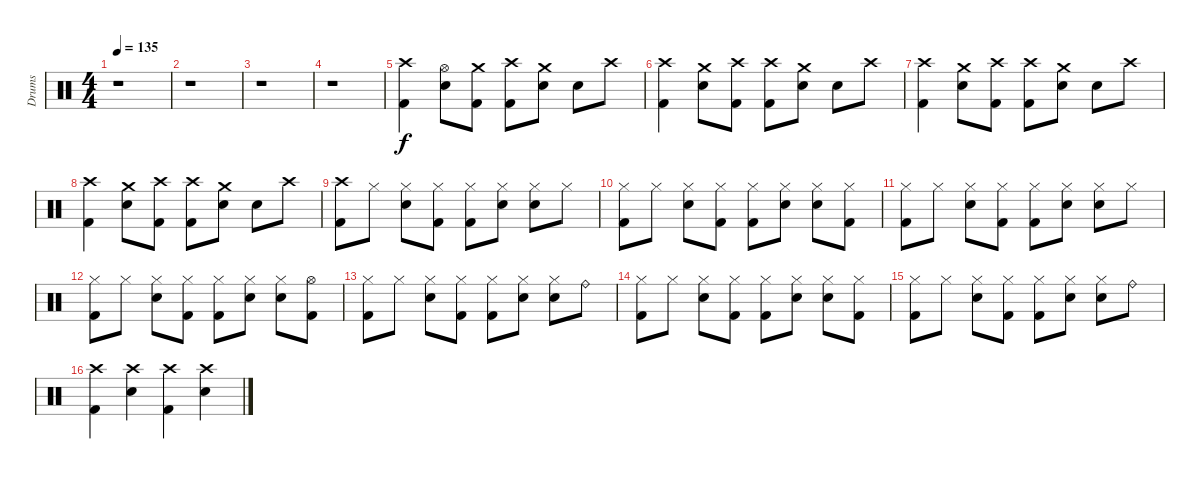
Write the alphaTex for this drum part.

\track ("Drums" "Drums") {instrument percussion}
\staff {score}
\articulation defaults
\ts (4 4)
\tempo 135
\clef neutral
\ks c
r.1{dy f} |
r.1 |
r.1 |
r.1 |
("Crash high (hit)" "Kick (hit) 2").4 ("Hi-Hat (open)" "Snare (hit) 2").8 ("Crash medium (hit)" "Kick (hit) 2").8 ("Crash high (hit)" "Kick (hit) 2").8 ("Crash medium (hit)" "Snare (hit) 2").8 "Snare (hit) 2".8 "Crash high (hit)".8 |
("Crash high (hit)" "Kick (hit) 2").4 ("Crash medium (hit)" "Snare (hit) 2").8 ("Crash high (hit)" "Kick (hit) 2").8 ("Crash high (hit)" "Kick (hit) 2").8 ("Crash medium (hit)" "Snare (hit) 2").8 "Snare (hit) 2".8 "Crash high (hit)".8 |
("Crash high (hit)" "Kick (hit) 2").4 ("Crash medium (hit)" "Snare (hit) 2").8 ("Crash high (hit)" "Kick (hit) 2").8 ("Crash high (hit)" "Kick (hit) 2").8 ("Crash medium (hit)" "Snare (hit) 2").8 "Snare (hit) 2".8 "Crash high (hit)".8 |
("Crash high (hit)" "Kick (hit) 2").4 ("Crash medium (hit)" "Snare (hit) 2").8 ("Crash high (hit)" "Kick (hit) 2").8 ("Crash high (hit)" "Kick (hit) 2").8 ("Crash medium (hit)" "Snare (hit) 2").8 "Snare (hit) 2".8 "Crash high (hit)".8 |
("Crash high (hit)" "Kick (hit) 2").8 "Hi-Hat (closed)".8 ("Hi-Hat (closed)" "Snare (hit) 2").8 ("Hi-Hat (closed)" "Kick (hit) 2").8 ("Hi-Hat (closed)" "Kick (hit) 2").8 ("Hi-Hat (closed)" "Snare (hit) 2").8 ("Hi-Hat (closed)" "Snare (hit) 2").8 "Hi-Hat (closed)".8 |
("Hi-Hat (closed)" "Kick (hit) 2").8 "Hi-Hat (closed)".8 ("Hi-Hat (closed)" "Snare (hit) 2").8 ("Hi-Hat (closed)" "Kick (hit) 2").8 ("Hi-Hat (closed)" "Kick (hit) 2").8 ("Hi-Hat (closed)" "Snare (hit) 2").8 ("Hi-Hat (closed)" "Snare (hit) 2").8 ("Hi-Hat (closed)" "Kick (hit) 2").8 |
("Hi-Hat (closed)" "Kick (hit) 2").8 "Hi-Hat (closed)".8 ("Hi-Hat (closed)" "Snare (hit) 2").8 ("Hi-Hat (closed)" "Kick (hit) 2").8 ("Hi-Hat (closed)" "Kick (hit) 2").8 ("Hi-Hat (closed)" "Snare (hit) 2").8 ("Hi-Hat (closed)" "Snare (hit) 2").8 "Hi-Hat (closed)".8 |
("Hi-Hat (closed)" "Kick (hit) 2").8 "Hi-Hat (closed)".8 ("Hi-Hat (closed)" "Snare (hit) 2").8 ("Hi-Hat (closed)" "Kick (hit) 2").8 ("Hi-Hat (closed)" "Kick (hit) 2").8 ("Hi-Hat (closed)" "Snare (hit) 2").8 ("Hi-Hat (closed)" "Snare (hit) 2").8 ("Hi-Hat (open)" "Kick (hit) 2").8 |
("Hi-Hat (closed)" "Kick (hit) 2").8 "Hi-Hat (closed)".8 ("Hi-Hat (closed)" "Snare (hit) 2").8 ("Hi-Hat (closed)" "Kick (hit) 2").8 ("Hi-Hat (closed)" "Kick (hit) 2").8 ("Hi-Hat (closed)" "Snare (hit) 2").8 ("Hi-Hat (closed)" "Snare (hit) 2").8 "Ride (bell)".8 |
("Hi-Hat (closed)" "Kick (hit) 2").8 "Hi-Hat (closed)".8 ("Hi-Hat (closed)" "Snare (hit) 2").8 ("Hi-Hat (closed)" "Kick (hit) 2").8 ("Hi-Hat (closed)" "Kick (hit) 2").8 ("Hi-Hat (closed)" "Snare (hit) 2").8 ("Hi-Hat (closed)" "Snare (hit) 2").8 ("Hi-Hat (closed)" "Kick (hit) 2").8 |
("Hi-Hat (closed)" "Kick (hit) 2").8 "Hi-Hat (closed)".8 ("Hi-Hat (closed)" "Snare (hit) 2").8 ("Hi-Hat (closed)" "Kick (hit) 2").8 ("Hi-Hat (closed)" "Kick (hit) 2").8 ("Hi-Hat (closed)" "Snare (hit) 2").8 ("Hi-Hat (closed)" "Snare (hit) 2").8 "Ride (bell)".8 |
("Crash high (hit)" "Kick (hit) 2").4 ("Crash high (hit)" "Snare (hit) 2").4 ("Crash high (hit)" "Kick (hit) 2").4 ("Crash high (hit)" "Snare (hit) 2").4
